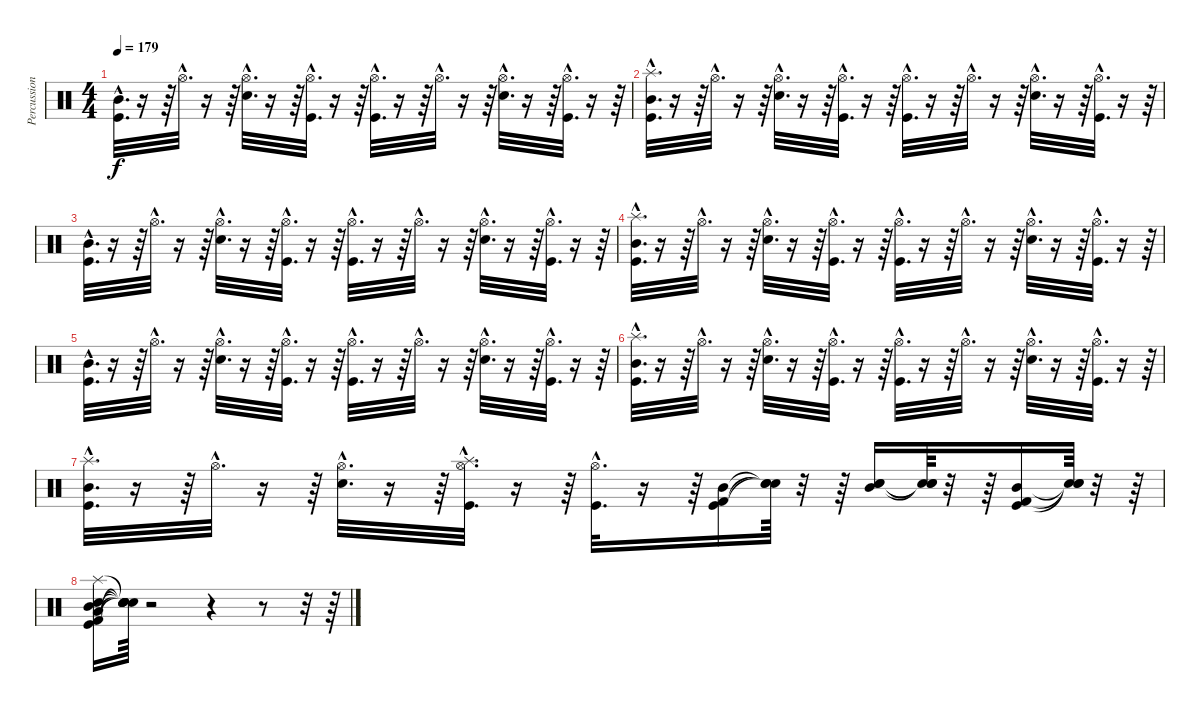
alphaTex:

\track ("Percussion" "Percussion") {instrument percussion}
\staff {score}
\articulation defaults
\ts (4 4)
\tempo 179
\clef neutral
\ks c
("Mid Tom (hit)"{hac} "Kick (hit)"{hac}).32{d dy f} r.16 r.64 "Hi-Hat (open)"{hac}.32{d} r.16 r.64 ("Hi-Hat (open)"{hac} "Snare (hit) 2"{hac}).32{d} r.16 r.64 ("Hi-Hat (open)"{hac} "Kick (hit)"{hac}).32{d} r.16 r.64 ("Hi-Hat (open)"{hac} "Kick (hit)"{hac}).32{d} r.16 r.64 "Hi-Hat (open)"{hac}.32{d} r.16 r.64 ("Hi-Hat (open)"{hac} "Snare (hit) 2"{hac}).32{d} r.16 r.64 ("Hi-Hat (open)"{hac} "Kick (hit)"{hac}).32{d} r.16 r.64 |
("Splash (hit)"{hac} "Mid Tom (hit)"{hac} "Kick (hit)"{hac}).32{d} r.16 r.64 "Hi-Hat (open)"{hac}.32{d} r.16 r.64 ("Hi-Hat (open)"{hac} "Snare (hit) 2"{hac}).32{d} r.16 r.64 ("Hi-Hat (open)"{hac} "Kick (hit)"{hac}).32{d} r.16 r.64 ("Hi-Hat (open)"{hac} "Kick (hit)"{hac}).32{d} r.16 r.64 "Hi-Hat (open)"{hac}.32{d} r.16 r.64 ("Hi-Hat (open)"{hac} "Snare (hit) 2"{hac}).32{d} r.16 r.64 ("Hi-Hat (open)"{hac} "Kick (hit)"{hac}).32{d} r.16 r.64 |
("Mid Tom (hit)"{hac} "Kick (hit)"{hac}).32{d} r.16 r.64 "Hi-Hat (open)"{hac}.32{d} r.16 r.64 ("Hi-Hat (open)"{hac} "Snare (hit) 2"{hac}).32{d} r.16 r.64 ("Hi-Hat (open)"{hac} "Kick (hit)"{hac}).32{d} r.16 r.64 ("Hi-Hat (open)"{hac} "Kick (hit)"{hac}).32{d} r.16 r.64 "Hi-Hat (open)"{hac}.32{d} r.16 r.64 ("Hi-Hat (open)"{hac} "Snare (hit) 2"{hac}).32{d} r.16 r.64 ("Hi-Hat (open)"{hac} "Kick (hit)"{hac}).32{d} r.16 r.64 |
("Splash (hit)"{hac} "Mid Tom (hit)"{hac} "Kick (hit)"{hac}).32{d} r.16 r.64 "Hi-Hat (open)"{hac}.32{d} r.16 r.64 ("Hi-Hat (open)"{hac} "Snare (hit) 2"{hac}).32{d} r.16 r.64 ("Hi-Hat (open)"{hac} "Kick (hit)"{hac}).32{d} r.16 r.64 ("Hi-Hat (open)"{hac} "Kick (hit)"{hac}).32{d} r.16 r.64 "Hi-Hat (open)"{hac}.32{d} r.16 r.64 ("Hi-Hat (open)"{hac} "Snare (hit) 2"{hac}).32{d} r.16 r.64 ("Hi-Hat (open)"{hac} "Kick (hit)"{hac}).32{d} r.16 r.64 |
("Mid Tom (hit)"{hac} "Kick (hit)"{hac}).32{d} r.16 r.64 "Hi-Hat (open)"{hac}.32{d} r.16 r.64 ("Hi-Hat (open)"{hac} "Snare (hit) 2"{hac}).32{d} r.16 r.64 ("Hi-Hat (open)"{hac} "Kick (hit)"{hac}).32{d} r.16 r.64 ("Hi-Hat (open)"{hac} "Kick (hit)"{hac}).32{d} r.16 r.64 "Hi-Hat (open)"{hac}.32{d} r.16 r.64 ("Hi-Hat (open)"{hac} "Snare (hit) 2"{hac}).32{d} r.16 r.64 ("Hi-Hat (open)"{hac} "Kick (hit)"{hac}).32{d} r.16 r.64 |
("Splash (hit)"{hac} "Mid Tom (hit)"{hac} "Kick (hit)"{hac}).32{d} r.16 r.64 "Hi-Hat (open)"{hac}.32{d} r.16 r.64 ("Hi-Hat (open)"{hac} "Snare (hit) 2"{hac}).32{d} r.16 r.64 ("Hi-Hat (open)"{hac} "Kick (hit)"{hac}).32{d} r.16 r.64 ("Hi-Hat (open)"{hac} "Kick (hit)"{hac}).32{d} r.16 r.64 "Hi-Hat (open)"{hac}.32{d} r.16 r.64 ("Hi-Hat (open)"{hac} "Snare (hit) 2"{hac}).32{d} r.16 r.64 ("Hi-Hat (open)"{hac} "Kick (hit)"{hac}).32{d} r.16 r.64 |
("Splash (hit)"{hac} "Mid Tom (hit)"{hac} "Kick (hit)"{hac}).32{d} r.16 r.64 "Hi-Hat (open)"{hac}.32{d} r.16 r.64 ("Hi-Hat (open)"{hac} "Snare (hit) 2"{hac}).32{d} r.16 r.64 ("Splash (hit)"{hac} "Hi-Hat (open)"{hac} "Kick (hit)"{hac}).32{d} r.16 r.64 ("Hi-Hat (open)"{hac} "Kick (hit)"{hac}).32{d} r.16 r.64 ("Mid Tom (hit)" "Kick (hit) 2" "Kick (hit)").16 ("Snare (hit)"{t} "Snare (hit)"{t} "Snare (hit)"{t}).64 r.32 r.64 ("Mid Tom (hit)" "Snare (hit) 2" "Electric Snare (hit)").16 ("Snare (hit)"{t} "Snare (hit)"{t} "Snare (hit)"{t}).64 r.32 r.64 ("Mid Tom (hit)" "Kick (hit)" "Kick (hit) 2").16 ("Snare (hit)"{t} "Snare (hit)"{t} "Snare (hit)"{t}).64 r.32 r.64 |
("Snare (hit) 2" "Low Tom (hit)" "Splash (hit)" "Mid Tom (hit)" "Kick (hit)" "Kick (hit) 2").16 ("Snare (hit)"{t} "Snare (hit)"{t} "Snare (hit)"{t} "Snare (hit)"{t} "Snare (hit)"{t} "Snare (hit)"{t}).64 r.2 r.4 r.8 r.32 r.64
